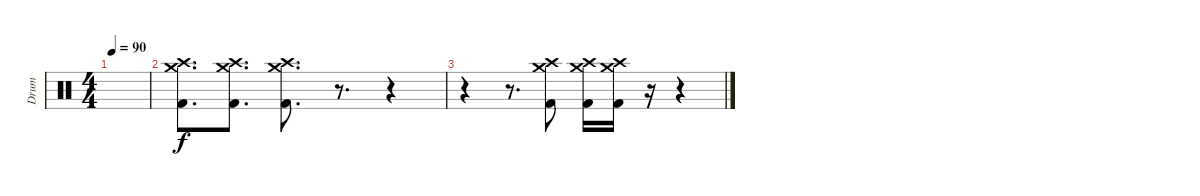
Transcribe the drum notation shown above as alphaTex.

\track ("Drum" "Drum") {instrument percussion}
\staff {score}
\articulation defaults
\ts (4 4)
\tempo 90
\clef neutral
\ks c
|
("Crash medium (hit)" "Crash high (hit)" "Kick (hit) 2").8{d} ("Crash medium (hit)" "Crash high (hit)" "Kick (hit) 2").8{d} ("Crash medium (hit)" "Crash high (hit)" "Kick (hit) 2").8{d} r.8{d} r.4 |
r.4 r.8{d} ("Crash medium (hit)" "Crash high (hit)" "Kick (hit) 2").8 ("Crash medium (hit)" "Crash high (hit)" "Kick (hit) 2").16 ("Crash medium (hit)" "Crash high (hit)" "Kick (hit) 2").16 r.16 r.4
